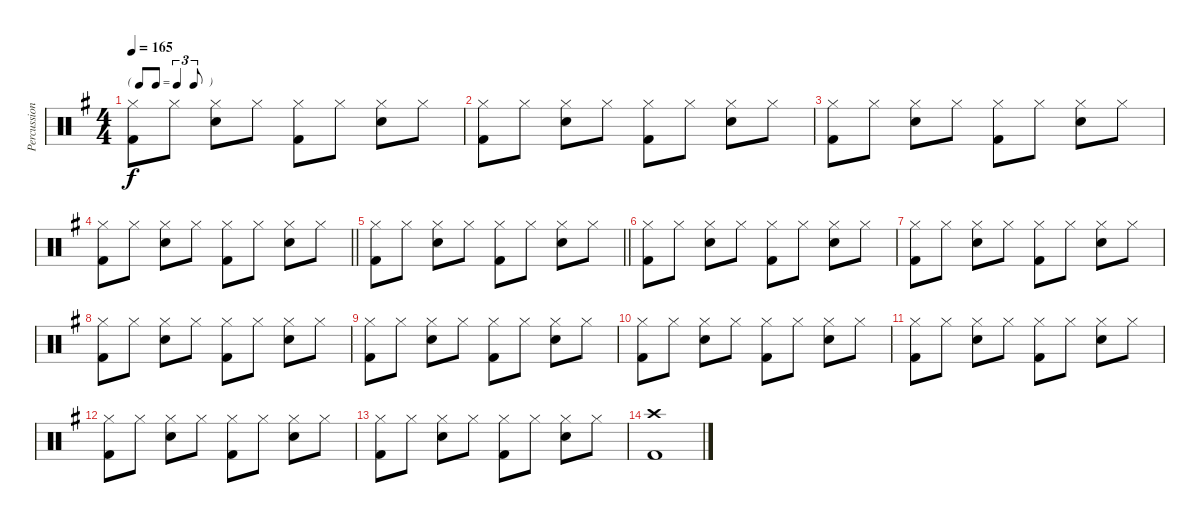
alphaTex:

\track ("Percussion" "Percussion") {instrument percussion}
\staff {score}
\articulation defaults
\ts (4 4)
\tf triplet8th
\tempo 165
\clef neutral
\ks g
("Hi-Hat (closed)" "Kick (hit) 2").8{dy f} "Hi-Hat (closed)".8 ("Hi-Hat (closed)" "Snare (hit) 2").8 "Hi-Hat (closed)".8 ("Hi-Hat (closed)" "Kick (hit) 2").8 "Hi-Hat (closed)".8 ("Hi-Hat (closed)" "Snare (hit) 2").8 "Hi-Hat (closed)".8 |
("Hi-Hat (closed)" "Kick (hit) 2").8 "Hi-Hat (closed)".8 ("Hi-Hat (closed)" "Snare (hit) 2").8 "Hi-Hat (closed)".8 ("Hi-Hat (closed)" "Kick (hit) 2").8 "Hi-Hat (closed)".8 ("Hi-Hat (closed)" "Snare (hit) 2").8 "Hi-Hat (closed)".8 |
("Hi-Hat (closed)" "Kick (hit) 2").8 "Hi-Hat (closed)".8 ("Hi-Hat (closed)" "Snare (hit) 2").8 "Hi-Hat (closed)".8 ("Hi-Hat (closed)" "Kick (hit) 2").8 "Hi-Hat (closed)".8 ("Hi-Hat (closed)" "Snare (hit) 2").8 "Hi-Hat (closed)".8 |
\barLineRight lightlight
("Hi-Hat (closed)" "Kick (hit) 2").8 "Hi-Hat (closed)".8 ("Hi-Hat (closed)" "Snare (hit) 2").8 "Hi-Hat (closed)".8 ("Hi-Hat (closed)" "Kick (hit) 2").8 "Hi-Hat (closed)".8 ("Hi-Hat (closed)" "Snare (hit) 2").8 "Hi-Hat (closed)".8 |
\barLineRight lightlight
("Hi-Hat (closed)" "Kick (hit) 2").8 "Hi-Hat (closed)".8 ("Hi-Hat (closed)" "Snare (hit) 2").8 "Hi-Hat (closed)".8 ("Hi-Hat (closed)" "Kick (hit) 2").8 "Hi-Hat (closed)".8 ("Hi-Hat (closed)" "Snare (hit) 2").8 "Hi-Hat (closed)".8 |
("Hi-Hat (closed)" "Kick (hit) 2").8 "Hi-Hat (closed)".8 ("Hi-Hat (closed)" "Snare (hit) 2").8 "Hi-Hat (closed)".8 ("Hi-Hat (closed)" "Kick (hit) 2").8 "Hi-Hat (closed)".8 ("Hi-Hat (closed)" "Snare (hit) 2").8 "Hi-Hat (closed)".8 |
("Hi-Hat (closed)" "Kick (hit) 2").8 "Hi-Hat (closed)".8 ("Hi-Hat (closed)" "Snare (hit) 2").8 "Hi-Hat (closed)".8 ("Hi-Hat (closed)" "Kick (hit) 2").8 "Hi-Hat (closed)".8 ("Hi-Hat (closed)" "Snare (hit) 2").8 "Hi-Hat (closed)".8 |
("Hi-Hat (closed)" "Kick (hit) 2").8 "Hi-Hat (closed)".8 ("Hi-Hat (closed)" "Snare (hit) 2").8 "Hi-Hat (closed)".8 ("Hi-Hat (closed)" "Kick (hit) 2").8 "Hi-Hat (closed)".8 ("Hi-Hat (closed)" "Snare (hit) 2").8 "Hi-Hat (closed)".8 |
("Hi-Hat (closed)" "Kick (hit) 2").8 "Hi-Hat (closed)".8 ("Hi-Hat (closed)" "Snare (hit) 2").8 "Hi-Hat (closed)".8 ("Hi-Hat (closed)" "Kick (hit) 2").8 "Hi-Hat (closed)".8 ("Hi-Hat (closed)" "Snare (hit) 2").8 "Hi-Hat (closed)".8 |
("Hi-Hat (closed)" "Kick (hit) 2").8 "Hi-Hat (closed)".8 ("Hi-Hat (closed)" "Snare (hit) 2").8 "Hi-Hat (closed)".8 ("Hi-Hat (closed)" "Kick (hit) 2").8 "Hi-Hat (closed)".8 ("Hi-Hat (closed)" "Snare (hit) 2").8 "Hi-Hat (closed)".8 |
("Hi-Hat (closed)" "Kick (hit) 2").8 "Hi-Hat (closed)".8 ("Hi-Hat (closed)" "Snare (hit) 2").8 "Hi-Hat (closed)".8 ("Hi-Hat (closed)" "Kick (hit) 2").8 "Hi-Hat (closed)".8 ("Hi-Hat (closed)" "Snare (hit) 2").8 "Hi-Hat (closed)".8 |
("Hi-Hat (closed)" "Kick (hit) 2").8 "Hi-Hat (closed)".8 ("Hi-Hat (closed)" "Snare (hit) 2").8 "Hi-Hat (closed)".8 ("Hi-Hat (closed)" "Kick (hit) 2").8 "Hi-Hat (closed)".8 ("Hi-Hat (closed)" "Snare (hit) 2").8 "Hi-Hat (closed)".8 |
("Hi-Hat (closed)" "Kick (hit) 2").8 "Hi-Hat (closed)".8 ("Hi-Hat (closed)" "Snare (hit) 2").8 "Hi-Hat (closed)".8 ("Hi-Hat (closed)" "Kick (hit) 2").8 "Hi-Hat (closed)".8 ("Hi-Hat (closed)" "Snare (hit) 2").8 "Hi-Hat (closed)".8 |
("Crash high (hit)" "Kick (hit) 2").1
